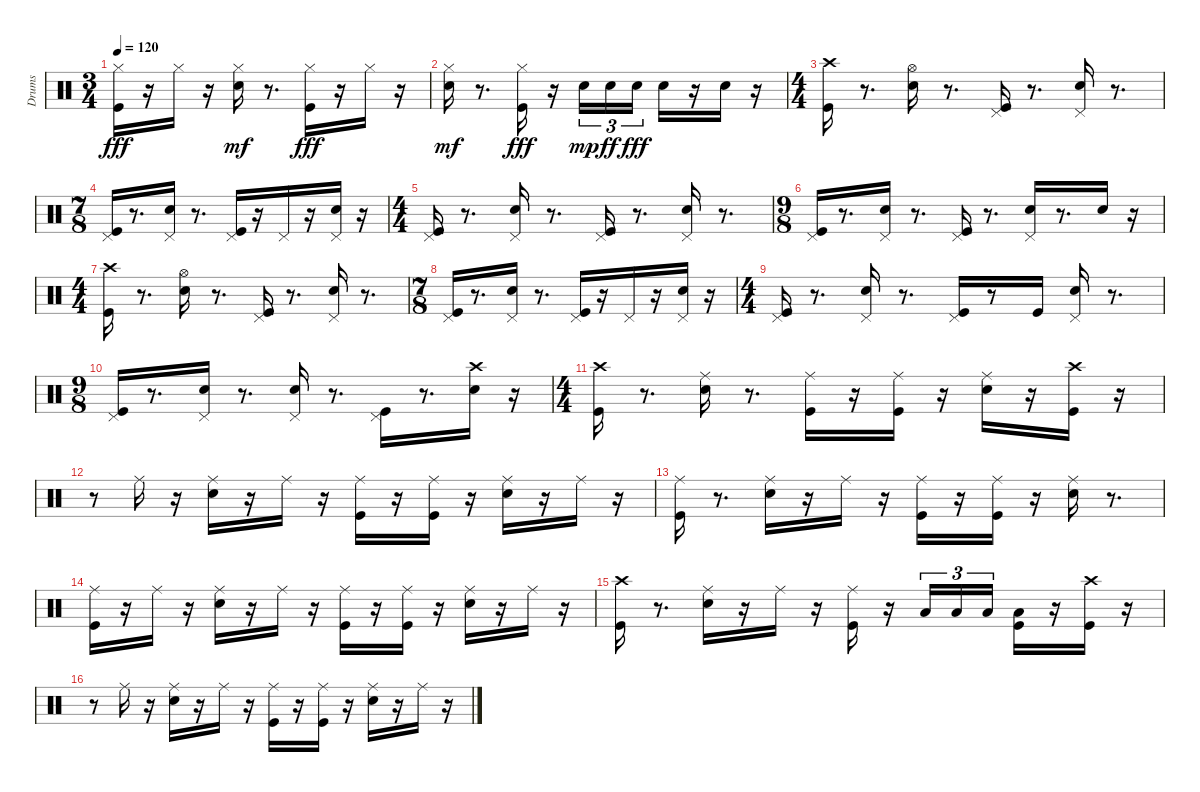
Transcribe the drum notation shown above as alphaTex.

\track ("Drums" "Drums") {instrument percussion}
\staff {score}
\articulation defaults
\ts (3 4)
\tempo 120
\clef neutral
\ks c
("Kick (hit)" "Hi-Hat (closed)").16{dy fff} r.16 "Hi-Hat (closed)".16 r.16 ("Snare (hit) 2" "Hi-Hat (closed)").16{dy mf} r.8{d} ("Kick (hit)" "Hi-Hat (closed)").16{dy fff} r.16 "Hi-Hat (closed)".16 r.16 |
("Snare (hit) 2" "Hi-Hat (closed)").16{dy mf} r.8{d} ("Kick (hit)" "Hi-Hat (closed)").16{dy fff} r.16 "Snare (hit) 2".16{tu (3 2) dy mp} "Snare (hit) 2".16{tu (3 2) dy ff} "Snare (hit) 2".16{tu (3 2) dy fff} "Snare (hit) 2".16 r.16 "Snare (hit) 2".16 r.16 |
\ts (4 4)
("Crash high (hit)" "Kick (hit)").16 r.8{d} ("Hi-Hat (open)" "Snare (hit) 2").16 r.8{d} ("Pedal Hi-Hat (hit)" "Kick (hit)").16 r.8{d} ("Pedal Hi-Hat (hit)" "Snare (hit) 2").16 r.8{d} |
\ts (7 8)
("Pedal Hi-Hat (hit)" "Kick (hit)").16 r.8{d} ("Pedal Hi-Hat (hit)" "Snare (hit) 2").16 r.8{d} ("Pedal Hi-Hat (hit)" "Kick (hit)").16 r.16 "Pedal Hi-Hat (hit)".16 r.16 ("Snare (hit) 2" "Pedal Hi-Hat (hit)").16 r.16 |
\ts (4 4)
("Pedal Hi-Hat (hit)" "Kick (hit)").16 r.8{d} ("Pedal Hi-Hat (hit)" "Snare (hit) 2").16 r.8{d} ("Kick (hit)" "Pedal Hi-Hat (hit)").16 r.8{d} ("Snare (hit) 2" "Pedal Hi-Hat (hit)").16 r.8{d} |
\ts (9 8)
("Kick (hit)" "Pedal Hi-Hat (hit)").16 r.8{d} ("Snare (hit) 2" "Pedal Hi-Hat (hit)").16 r.8{d} ("Pedal Hi-Hat (hit)" "Kick (hit)").16 r.8{d} ("Pedal Hi-Hat (hit)" "Snare (hit) 2").16 r.8{d} "Snare (hit) 2".16 r.16 |
\ts (4 4)
("Kick (hit)" "Crash high (hit)").16 r.8{d} ("Snare (hit) 2" "Hi-Hat (open)").16 r.8{d} ("Kick (hit)" "Pedal Hi-Hat (hit)").16 r.8{d} ("Snare (hit) 2" "Pedal Hi-Hat (hit)").16 r.8{d} |
\ts (7 8)
("Kick (hit)" "Pedal Hi-Hat (hit)").16 r.8{d} ("Snare (hit) 2" "Pedal Hi-Hat (hit)").16 r.8{d} ("Kick (hit)" "Pedal Hi-Hat (hit)").16 r.16 "Pedal Hi-Hat (hit)".16 r.16 ("Pedal Hi-Hat (hit)" "Snare (hit) 2").16 r.16 |
\ts (4 4)
("Kick (hit)" "Pedal Hi-Hat (hit)").16 r.8{d} ("Snare (hit) 2" "Pedal Hi-Hat (hit)").16 r.8{d} ("Pedal Hi-Hat (hit)" "Kick (hit)").16 r.8 "Kick (hit)".16 ("Pedal Hi-Hat (hit)" "Snare (hit) 2").16 r.8{d} |
\ts (9 8)
("Pedal Hi-Hat (hit)" "Kick (hit)").16 r.8{d} ("Pedal Hi-Hat (hit)" "Snare (hit) 2").16 r.8{d} ("Snare (hit) 2" "Pedal Hi-Hat (hit)").16 r.8{d} ("Kick (hit)" "Pedal Hi-Hat (hit)").16 r.8{d} ("Snare (hit) 2" "Crash high (hit)").16 r.16 |
\ts (4 4)
("Crash high (hit)" "Kick (hit)").16 r.8{d} ("Ride (middle)" "Snare (hit) 2").16 r.8{d} ("Ride (middle)" "Kick (hit)").16 r.16 ("Ride (middle)" "Kick (hit)").16 r.16 ("Ride (middle)" "Snare (hit) 2").16 r.16 ("Crash high (hit)" "Kick (hit)").16 r.16 |
r.8 "Ride (middle)".16 r.16 ("Ride (middle)" "Snare (hit) 2").16 r.16 "Ride (middle)".16 r.16 ("Ride (middle)" "Kick (hit)").16 r.16 ("Ride (middle)" "Kick (hit)").16 r.16 ("Ride (middle)" "Snare (hit) 2").16 r.16 "Ride (middle)".16 r.16 |
("Ride (middle)" "Kick (hit)").16 r.8{d} ("Ride (middle)" "Snare (hit) 2").16 r.16 "Ride (middle)".16 r.16 ("Ride (middle)" "Kick (hit)").16 r.16 ("Ride (middle)" "Kick (hit)").16 r.16 ("Ride (middle)" "Snare (hit) 2").16 r.8{d} |
("Ride (middle)" "Kick (hit)").16 r.16 "Ride (middle)".16 r.16 ("Ride (middle)" "Snare (hit) 2").16 r.16 "Ride (middle)".16 r.16 ("Ride (middle)" "Kick (hit)").16 r.16 ("Kick (hit)" "Ride (middle)").16 r.16 ("Ride (middle)" "Snare (hit) 2").16 r.16 "Ride (middle)".16 r.16 |
("Kick (hit)" "Crash high (hit)").16 r.8{d} ("Ride (middle)" "Snare (hit) 2").16 r.16 "Ride (middle)".16 r.16 ("Kick (hit)" "Ride (middle)").16 r.16 "Low Floor Tom (hit)".16{tu (3 2)} "Low Floor Tom (hit)".16{tu (3 2)} "Low Floor Tom (hit)".16{tu (3 2)} ("Kick (hit)" "Low Floor Tom (hit)").16 r.16 ("Kick (hit)" "Crash high (hit)").16 r.16 |
r.8 "Ride (middle)".16 r.16 ("Snare (hit) 2" "Ride (middle)").16 r.16 "Ride (middle)".16 r.16 ("Kick (hit)" "Ride (middle)").16 r.16 ("Ride (middle)" "Kick (hit)").16 r.16 ("Snare (hit) 2" "Ride (middle)").16 r.16 "Ride (middle)".16 r.16
